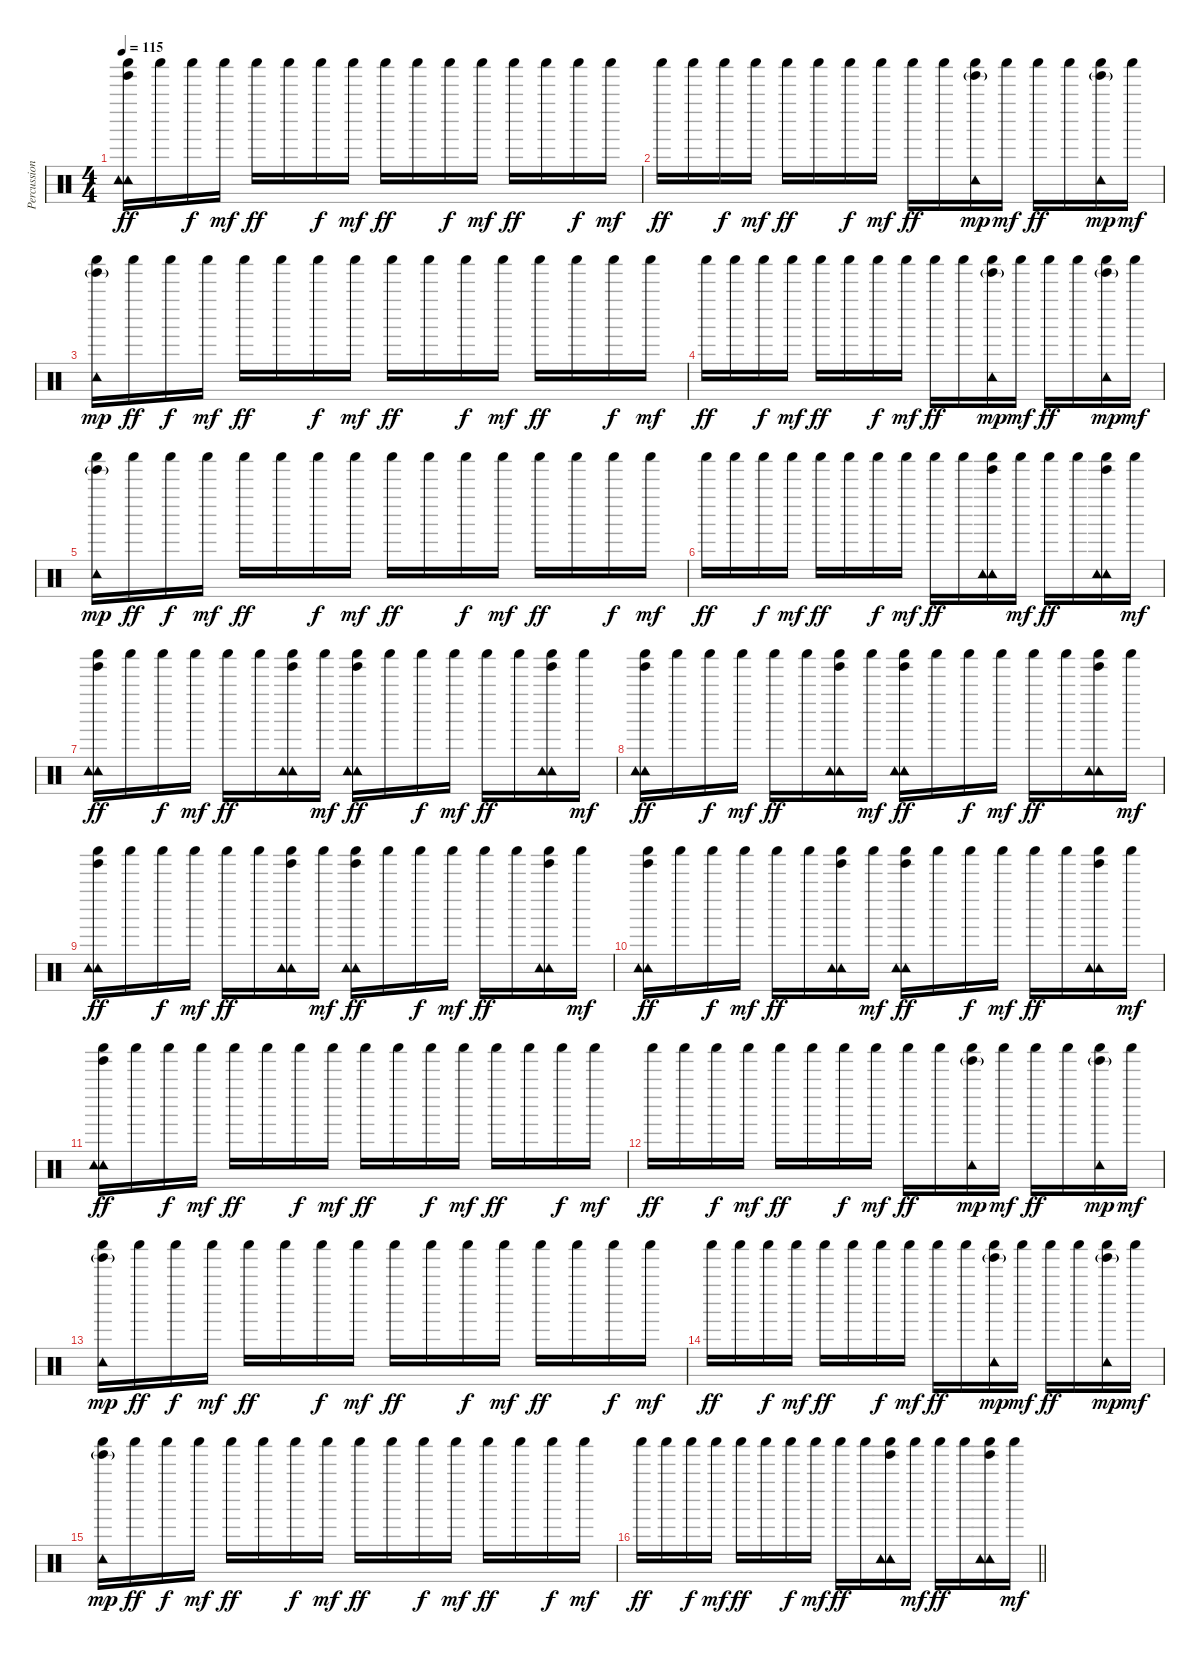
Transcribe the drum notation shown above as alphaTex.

\track ("Percussion" "Percussion") {instrument percussion}
\staff {score}
\articulation defaults
\ts (4 4)
\tempo 115
\clef neutral
\ks c
("Shaker (hit)" "Tambourine (hit)" "Tambourine (hit)" "Tinkle Bell (hit)").16{dy ff} "Shaker (hit)".16 "Shaker (hit)".16{dy f} "Shaker (hit)".16{dy mf} "Shaker (hit)".16{dy ff} "Shaker (hit)".16 "Shaker (hit)".16{dy f} "Shaker (hit)".16{dy mf} "Shaker (hit)".16{dy ff} "Shaker (hit)".16 "Shaker (hit)".16{dy f} "Shaker (hit)".16{dy mf} "Shaker (hit)".16{dy ff} "Shaker (hit)".16 "Shaker (hit)".16{dy f} "Shaker (hit)".16{dy mf} |
"Shaker (hit)".16{dy ff} "Shaker (hit)".16 "Shaker (hit)".16{dy f} "Shaker (hit)".16{dy mf} "Shaker (hit)".16{dy ff} "Shaker (hit)".16 "Shaker (hit)".16{dy f} "Shaker (hit)".16{dy mf} "Shaker (hit)".16{dy ff} "Shaker (hit)".16 ("Shaker (hit)" "Tambourine (hit)" "Tinkle Bell (hit)"{g}).16{dy mp} "Shaker (hit)".16{dy mf} "Shaker (hit)".16{dy ff} "Shaker (hit)".16 ("Shaker (hit)" "Tambourine (hit)" "Tinkle Bell (hit)"{g}).16{dy mp} "Shaker (hit)".16{dy mf} |
("Shaker (hit)" "Tambourine (hit)" "Tinkle Bell (hit)"{g}).16{dy mp} "Shaker (hit)".16{dy ff} "Shaker (hit)".16{dy f} "Shaker (hit)".16{dy mf} "Shaker (hit)".16{dy ff} "Shaker (hit)".16 "Shaker (hit)".16{dy f} "Shaker (hit)".16{dy mf} "Shaker (hit)".16{dy ff} "Shaker (hit)".16 "Shaker (hit)".16{dy f} "Shaker (hit)".16{dy mf} "Shaker (hit)".16{dy ff} "Shaker (hit)".16 "Shaker (hit)".16{dy f} "Shaker (hit)".16{dy mf} |
"Shaker (hit)".16{dy ff} "Shaker (hit)".16 "Shaker (hit)".16{dy f} "Shaker (hit)".16{dy mf} "Shaker (hit)".16{dy ff} "Shaker (hit)".16 "Shaker (hit)".16{dy f} "Shaker (hit)".16{dy mf} "Shaker (hit)".16{dy ff} "Shaker (hit)".16 ("Shaker (hit)" "Tambourine (hit)" "Tinkle Bell (hit)"{g}).16{dy mp} "Shaker (hit)".16{dy mf} "Shaker (hit)".16{dy ff} "Shaker (hit)".16 ("Shaker (hit)" "Tambourine (hit)" "Tinkle Bell (hit)"{g}).16{dy mp} "Shaker (hit)".16{dy mf} |
("Shaker (hit)" "Tambourine (hit)" "Tinkle Bell (hit)"{g}).16{dy mp} "Shaker (hit)".16{dy ff} "Shaker (hit)".16{dy f} "Shaker (hit)".16{dy mf} "Shaker (hit)".16{dy ff} "Shaker (hit)".16 "Shaker (hit)".16{dy f} "Shaker (hit)".16{dy mf} "Shaker (hit)".16{dy ff} "Shaker (hit)".16 "Shaker (hit)".16{dy f} "Shaker (hit)".16{dy mf} "Shaker (hit)".16{dy ff} "Shaker (hit)".16 "Shaker (hit)".16{dy f} "Shaker (hit)".16{dy mf} |
"Shaker (hit)".16{dy ff} "Shaker (hit)".16 "Shaker (hit)".16{dy f} "Shaker (hit)".16{dy mf} "Shaker (hit)".16{dy ff} "Shaker (hit)".16 "Shaker (hit)".16{dy f} "Shaker (hit)".16{dy mf} "Shaker (hit)".16{dy ff} "Shaker (hit)".16 ("Shaker (hit)" "Tambourine (hit)" "Tambourine (hit)" "Tinkle Bell (hit)").16 "Shaker (hit)".16{dy mf} "Shaker (hit)".16{dy ff} "Shaker (hit)".16 ("Shaker (hit)" "Tambourine (hit)" "Tambourine (hit)" "Tinkle Bell (hit)").16 "Shaker (hit)".16{dy mf} |
("Shaker (hit)" "Tambourine (hit)" "Tambourine (hit)" "Tinkle Bell (hit)").16{dy ff} "Shaker (hit)".16 "Shaker (hit)".16{dy f} "Shaker (hit)".16{dy mf} "Shaker (hit)".16{dy ff} "Shaker (hit)".16 ("Shaker (hit)" "Tambourine (hit)" "Tambourine (hit)" "Tinkle Bell (hit)").16 "Shaker (hit)".16{dy mf} ("Shaker (hit)" "Tambourine (hit)" "Tambourine (hit)" "Tinkle Bell (hit)").16{dy ff} "Shaker (hit)".16 "Shaker (hit)".16{dy f} "Shaker (hit)".16{dy mf} "Shaker (hit)".16{dy ff} "Shaker (hit)".16 ("Shaker (hit)" "Tambourine (hit)" "Tambourine (hit)" "Tinkle Bell (hit)").16 "Shaker (hit)".16{dy mf} |
("Shaker (hit)" "Tambourine (hit)" "Tambourine (hit)" "Tinkle Bell (hit)").16{dy ff} "Shaker (hit)".16 "Shaker (hit)".16{dy f} "Shaker (hit)".16{dy mf} "Shaker (hit)".16{dy ff} "Shaker (hit)".16 ("Shaker (hit)" "Tambourine (hit)" "Tambourine (hit)" "Tinkle Bell (hit)").16 "Shaker (hit)".16{dy mf} ("Shaker (hit)" "Tambourine (hit)" "Tambourine (hit)" "Tinkle Bell (hit)").16{dy ff} "Shaker (hit)".16 "Shaker (hit)".16{dy f} "Shaker (hit)".16{dy mf} "Shaker (hit)".16{dy ff} "Shaker (hit)".16 ("Shaker (hit)" "Tambourine (hit)" "Tambourine (hit)" "Tinkle Bell (hit)").16 "Shaker (hit)".16{dy mf} |
("Shaker (hit)" "Tambourine (hit)" "Tambourine (hit)" "Tinkle Bell (hit)").16{dy ff} "Shaker (hit)".16 "Shaker (hit)".16{dy f} "Shaker (hit)".16{dy mf} "Shaker (hit)".16{dy ff} "Shaker (hit)".16 ("Shaker (hit)" "Tambourine (hit)" "Tambourine (hit)" "Tinkle Bell (hit)").16 "Shaker (hit)".16{dy mf} ("Shaker (hit)" "Tambourine (hit)" "Tambourine (hit)" "Tinkle Bell (hit)").16{dy ff} "Shaker (hit)".16 "Shaker (hit)".16{dy f} "Shaker (hit)".16{dy mf} "Shaker (hit)".16{dy ff} "Shaker (hit)".16 ("Shaker (hit)" "Tambourine (hit)" "Tambourine (hit)" "Tinkle Bell (hit)").16 "Shaker (hit)".16{dy mf} |
("Shaker (hit)" "Tambourine (hit)" "Tambourine (hit)" "Tinkle Bell (hit)").16{dy ff} "Shaker (hit)".16 "Shaker (hit)".16{dy f} "Shaker (hit)".16{dy mf} "Shaker (hit)".16{dy ff} "Shaker (hit)".16 ("Shaker (hit)" "Tambourine (hit)" "Tambourine (hit)" "Tinkle Bell (hit)").16 "Shaker (hit)".16{dy mf} ("Shaker (hit)" "Tambourine (hit)" "Tambourine (hit)" "Tinkle Bell (hit)").16{dy ff} "Shaker (hit)".16 "Shaker (hit)".16{dy f} "Shaker (hit)".16{dy mf} "Shaker (hit)".16{dy ff} "Shaker (hit)".16 ("Shaker (hit)" "Tambourine (hit)" "Tambourine (hit)" "Tinkle Bell (hit)").16 "Shaker (hit)".16{dy mf} |
("Shaker (hit)" "Tambourine (hit)" "Tambourine (hit)" "Tinkle Bell (hit)").16{dy ff} "Shaker (hit)".16 "Shaker (hit)".16{dy f} "Shaker (hit)".16{dy mf} "Shaker (hit)".16{dy ff} "Shaker (hit)".16 "Shaker (hit)".16{dy f} "Shaker (hit)".16{dy mf} "Shaker (hit)".16{dy ff} "Shaker (hit)".16 "Shaker (hit)".16{dy f} "Shaker (hit)".16{dy mf} "Shaker (hit)".16{dy ff} "Shaker (hit)".16 "Shaker (hit)".16{dy f} "Shaker (hit)".16{dy mf} |
"Shaker (hit)".16{dy ff} "Shaker (hit)".16 "Shaker (hit)".16{dy f} "Shaker (hit)".16{dy mf} "Shaker (hit)".16{dy ff} "Shaker (hit)".16 "Shaker (hit)".16{dy f} "Shaker (hit)".16{dy mf} "Shaker (hit)".16{dy ff} "Shaker (hit)".16 ("Shaker (hit)" "Tambourine (hit)" "Tinkle Bell (hit)"{g}).16{dy mp} "Shaker (hit)".16{dy mf} "Shaker (hit)".16{dy ff} "Shaker (hit)".16 ("Shaker (hit)" "Tambourine (hit)" "Tinkle Bell (hit)"{g}).16{dy mp} "Shaker (hit)".16{dy mf} |
("Shaker (hit)" "Tambourine (hit)" "Tinkle Bell (hit)"{g}).16{dy mp} "Shaker (hit)".16{dy ff} "Shaker (hit)".16{dy f} "Shaker (hit)".16{dy mf} "Shaker (hit)".16{dy ff} "Shaker (hit)".16 "Shaker (hit)".16{dy f} "Shaker (hit)".16{dy mf} "Shaker (hit)".16{dy ff} "Shaker (hit)".16 "Shaker (hit)".16{dy f} "Shaker (hit)".16{dy mf} "Shaker (hit)".16{dy ff} "Shaker (hit)".16 "Shaker (hit)".16{dy f} "Shaker (hit)".16{dy mf} |
"Shaker (hit)".16{dy ff} "Shaker (hit)".16 "Shaker (hit)".16{dy f} "Shaker (hit)".16{dy mf} "Shaker (hit)".16{dy ff} "Shaker (hit)".16 "Shaker (hit)".16{dy f} "Shaker (hit)".16{dy mf} "Shaker (hit)".16{dy ff} "Shaker (hit)".16 ("Shaker (hit)" "Tambourine (hit)" "Tinkle Bell (hit)"{g}).16{dy mp} "Shaker (hit)".16{dy mf} "Shaker (hit)".16{dy ff} "Shaker (hit)".16 ("Shaker (hit)" "Tambourine (hit)" "Tinkle Bell (hit)"{g}).16{dy mp} "Shaker (hit)".16{dy mf} |
("Shaker (hit)" "Tambourine (hit)" "Tinkle Bell (hit)"{g}).16{dy mp} "Shaker (hit)".16{dy ff} "Shaker (hit)".16{dy f} "Shaker (hit)".16{dy mf} "Shaker (hit)".16{dy ff} "Shaker (hit)".16 "Shaker (hit)".16{dy f} "Shaker (hit)".16{dy mf} "Shaker (hit)".16{dy ff} "Shaker (hit)".16 "Shaker (hit)".16{dy f} "Shaker (hit)".16{dy mf} "Shaker (hit)".16{dy ff} "Shaker (hit)".16 "Shaker (hit)".16{dy f} "Shaker (hit)".16{dy mf} |
\barLineRight lightlight "Shaker (hit)".16{dy ff} "Shaker (hit)".16 "Shaker (hit)".16{dy f} "Shaker (hit)".16{dy mf} "Shaker (hit)".16{dy ff} "Shaker (hit)".16 "Shaker (hit)".16{dy f} "Shaker (hit)".16{dy mf} "Shaker (hit)".16{dy ff} "Shaker (hit)".16
("Shaker (hit)" "Tambourine (hit)" "Tambourine (hit)" "Tinkle Bell (hit)").16 "Shaker (hit)".16{dy mf} "Shaker (hit)".16{dy ff} "Shaker (hit)".16 ("Shaker (hit)" "Tambourine (hit)" "Tambourine (hit)" "Tinkle Bell (hit)").16 "Shaker (hit)".16{dy mf}
